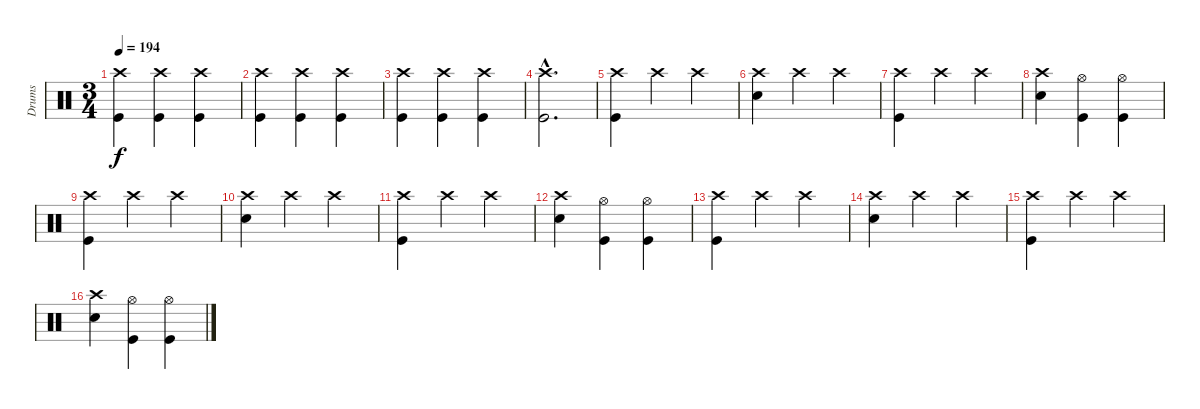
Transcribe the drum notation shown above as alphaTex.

\track ("Drums" "Drums") {instrument percussion}
\staff {score}
\articulation defaults
\ts (3 4)
\tempo 194
\clef neutral
\ks c
("Crash high (hit)" "Kick (hit)").4{dy f} ("Crash high (hit)" "Kick (hit)").4 ("Crash high (hit)" "Kick (hit)").4 |
("Crash high (hit)" "Kick (hit)").4 ("Crash high (hit)" "Kick (hit)").4 ("Crash high (hit)" "Kick (hit)").4 |
("Crash high (hit)" "Kick (hit)").4 ("Crash high (hit)" "Kick (hit)").4 ("Crash high (hit)" "Kick (hit)").4 |
("Crash high (hit)"{hac} "Kick (hit)"{hac}).2{d} |
("Crash high (hit)" "Kick (hit)").4 "Crash high (hit)".4 "Crash high (hit)".4 |
("Crash high (hit)" "Electric Snare (hit)").4 "Crash high (hit)".4 "Crash high (hit)".4 |
("Crash high (hit)" "Kick (hit)").4 "Crash high (hit)".4 "Crash high (hit)".4 |
("Crash high (hit)" "Electric Snare (hit)").4 ("Hi-Hat (open)" "Kick (hit)").4 ("Hi-Hat (open)" "Kick (hit)").4 |
("Crash high (hit)" "Kick (hit)").4 "Crash high (hit)".4 "Crash high (hit)".4 |
("Crash high (hit)" "Electric Snare (hit)").4 "Crash high (hit)".4 "Crash high (hit)".4 |
("Crash high (hit)" "Kick (hit)").4 "Crash high (hit)".4 "Crash high (hit)".4 |
("Crash high (hit)" "Electric Snare (hit)").4 ("Hi-Hat (open)" "Kick (hit)").4 ("Hi-Hat (open)" "Kick (hit)").4 |
("Crash high (hit)" "Kick (hit)").4 "Crash high (hit)".4 "Crash high (hit)".4 |
("Crash high (hit)" "Electric Snare (hit)").4 "Crash high (hit)".4 "Crash high (hit)".4 |
("Crash high (hit)" "Kick (hit)").4 "Crash high (hit)".4 "Crash high (hit)".4 |
("Crash high (hit)" "Electric Snare (hit)").4 ("Hi-Hat (open)" "Kick (hit)").4 ("Hi-Hat (open)" "Kick (hit)").4
